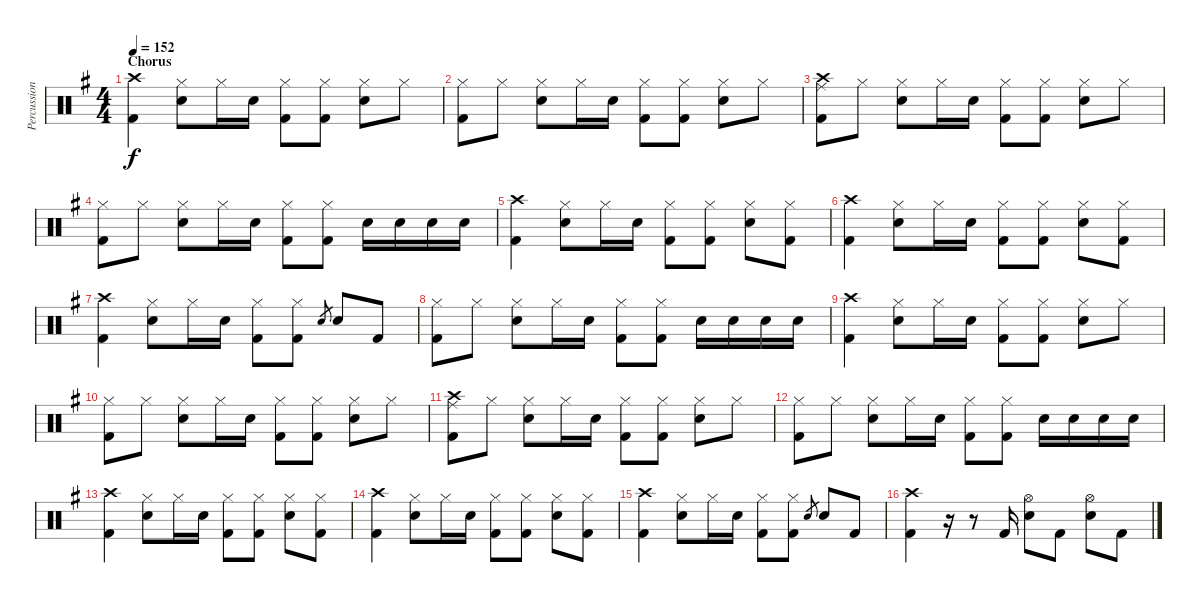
\track ("Percussion" "Percussion") {instrument percussion}
\staff {score}
\articulation defaults
\ts (4 4)
\section ("" "Chorus")
\tempo 152
\clef neutral
\ks eminor
("Crash high (hit)" "Kick (hit) 2").4{dy f} ("Hi-Hat (closed)" "Snare (hit) 2").8 "Hi-Hat (closed)".16 "Snare (hit) 2".16 ("Hi-Hat (closed)" "Kick (hit) 2").8 ("Hi-Hat (closed)" "Kick (hit) 2").8 ("Hi-Hat (closed)" "Snare (hit) 2").8 "Hi-Hat (closed)".8 |
("Hi-Hat (closed)" "Kick (hit) 2").8 "Hi-Hat (closed)".8 ("Hi-Hat (closed)" "Snare (hit) 2").8 "Hi-Hat (closed)".16 "Snare (hit) 2".16 ("Hi-Hat (closed)" "Kick (hit) 2").8 ("Hi-Hat (closed)" "Kick (hit) 2").8 ("Hi-Hat (closed)" "Snare (hit) 2").8 "Hi-Hat (closed)".8 |
("Crash high (hit)" "Kick (hit) 2" "Ride (middle)").8 "Hi-Hat (closed)".8 ("Hi-Hat (closed)" "Snare (hit) 2").8 "Hi-Hat (closed)".16 "Snare (hit) 2".16 ("Hi-Hat (closed)" "Kick (hit) 2").8 ("Hi-Hat (closed)" "Kick (hit) 2").8 ("Hi-Hat (closed)" "Snare (hit) 2").8 "Hi-Hat (closed)".8 |
("Hi-Hat (closed)" "Kick (hit) 2").8 "Hi-Hat (closed)".8 ("Hi-Hat (closed)" "Snare (hit) 2").8 "Hi-Hat (closed)".16 "Snare (hit) 2".16 ("Hi-Hat (closed)" "Kick (hit) 2").8 ("Hi-Hat (closed)" "Kick (hit) 2").8 "Snare (hit) 2".16 "Snare (hit) 2".16 "Snare (hit) 2".16 "Snare (hit) 2".16 |
("Crash high (hit)" "Kick (hit) 2").4 ("Hi-Hat (closed)" "Snare (hit) 2").8 "Hi-Hat (closed)".16 "Snare (hit) 2".16 ("Hi-Hat (closed)" "Kick (hit) 2").8 ("Hi-Hat (closed)" "Kick (hit) 2").8 ("Hi-Hat (closed)" "Snare (hit) 2").8 ("Hi-Hat (closed)" "Kick (hit) 2").8 |
("Crash high (hit)" "Kick (hit) 2").4 ("Hi-Hat (closed)" "Snare (hit) 2").8 "Hi-Hat (closed)".16 "Snare (hit) 2".16 ("Hi-Hat (closed)" "Kick (hit) 2").8 ("Hi-Hat (closed)" "Kick (hit) 2").8 ("Hi-Hat (closed)" "Snare (hit) 2").8 ("Hi-Hat (closed)" "Kick (hit) 2").8 |
("Crash high (hit)" "Kick (hit) 2").4 ("Hi-Hat (closed)" "Snare (hit) 2").8 "Hi-Hat (closed)".16 "Snare (hit) 2".16 ("Hi-Hat (closed)" "Kick (hit) 2").8 ("Hi-Hat (closed)" "Kick (hit) 2").8 "Snare (hit) 2".8{gr} "Snare (hit) 2".8 "Kick (hit) 2".8 |
("Hi-Hat (closed)" "Kick (hit) 2").8 "Hi-Hat (closed)".8 ("Hi-Hat (closed)" "Snare (hit) 2").8 "Hi-Hat (closed)".16 "Snare (hit) 2".16 ("Hi-Hat (closed)" "Kick (hit) 2").8 ("Hi-Hat (closed)" "Kick (hit) 2").8 "Snare (hit) 2".16 "Snare (hit) 2".16 "Snare (hit) 2".16 "Snare (hit) 2".16 |
("Crash high (hit)" "Kick (hit) 2").4 ("Hi-Hat (closed)" "Snare (hit) 2").8 "Hi-Hat (closed)".16 "Snare (hit) 2".16 ("Hi-Hat (closed)" "Kick (hit) 2").8 ("Hi-Hat (closed)" "Kick (hit) 2").8 ("Hi-Hat (closed)" "Snare (hit) 2").8 "Hi-Hat (closed)".8 |
("Hi-Hat (closed)" "Kick (hit) 2").8 "Hi-Hat (closed)".8 ("Hi-Hat (closed)" "Snare (hit) 2").8 "Hi-Hat (closed)".16 "Snare (hit) 2".16 ("Hi-Hat (closed)" "Kick (hit) 2").8 ("Hi-Hat (closed)" "Kick (hit) 2").8 ("Hi-Hat (closed)" "Snare (hit) 2").8 "Hi-Hat (closed)".8 |
("Crash high (hit)" "Kick (hit) 2" "Ride (middle)").8 "Hi-Hat (closed)".8 ("Hi-Hat (closed)" "Snare (hit) 2").8 "Hi-Hat (closed)".16 "Snare (hit) 2".16 ("Hi-Hat (closed)" "Kick (hit) 2").8 ("Hi-Hat (closed)" "Kick (hit) 2").8 ("Hi-Hat (closed)" "Snare (hit) 2").8 "Hi-Hat (closed)".8 |
("Hi-Hat (closed)" "Kick (hit) 2").8 "Hi-Hat (closed)".8 ("Hi-Hat (closed)" "Snare (hit) 2").8 "Hi-Hat (closed)".16 "Snare (hit) 2".16 ("Hi-Hat (closed)" "Kick (hit) 2").8 ("Hi-Hat (closed)" "Kick (hit) 2").8 "Snare (hit) 2".16 "Snare (hit) 2".16 "Snare (hit) 2".16 "Snare (hit) 2".16 |
("Crash high (hit)" "Kick (hit) 2").4 ("Hi-Hat (closed)" "Snare (hit) 2").8 "Hi-Hat (closed)".16 "Snare (hit) 2".16 ("Hi-Hat (closed)" "Kick (hit) 2").8 ("Hi-Hat (closed)" "Kick (hit) 2").8 ("Hi-Hat (closed)" "Snare (hit) 2").8 ("Hi-Hat (closed)" "Kick (hit) 2").8 |
("Crash high (hit)" "Kick (hit) 2").4 ("Hi-Hat (closed)" "Snare (hit) 2").8 "Hi-Hat (closed)".16 "Snare (hit) 2".16 ("Hi-Hat (closed)" "Kick (hit) 2").8 ("Hi-Hat (closed)" "Kick (hit) 2").8 ("Hi-Hat (closed)" "Snare (hit) 2").8 ("Hi-Hat (closed)" "Kick (hit) 2").8 |
("Crash high (hit)" "Kick (hit) 2").4 ("Hi-Hat (closed)" "Snare (hit) 2").8 "Hi-Hat (closed)".16 "Snare (hit) 2".16 ("Hi-Hat (closed)" "Kick (hit) 2").8 ("Hi-Hat (closed)" "Kick (hit) 2").8 "Snare (hit) 2".8{gr} "Snare (hit) 2".8 "Kick (hit) 2".8 |
("Crash high (hit)" "Kick (hit) 2").4 r.16 r.8 "Kick (hit) 2".16 ("Hi-Hat (open)" "Snare (hit) 2").8 "Kick (hit) 2".8 ("Hi-Hat (open)" "Snare (hit) 2").8 "Kick (hit) 2".8
